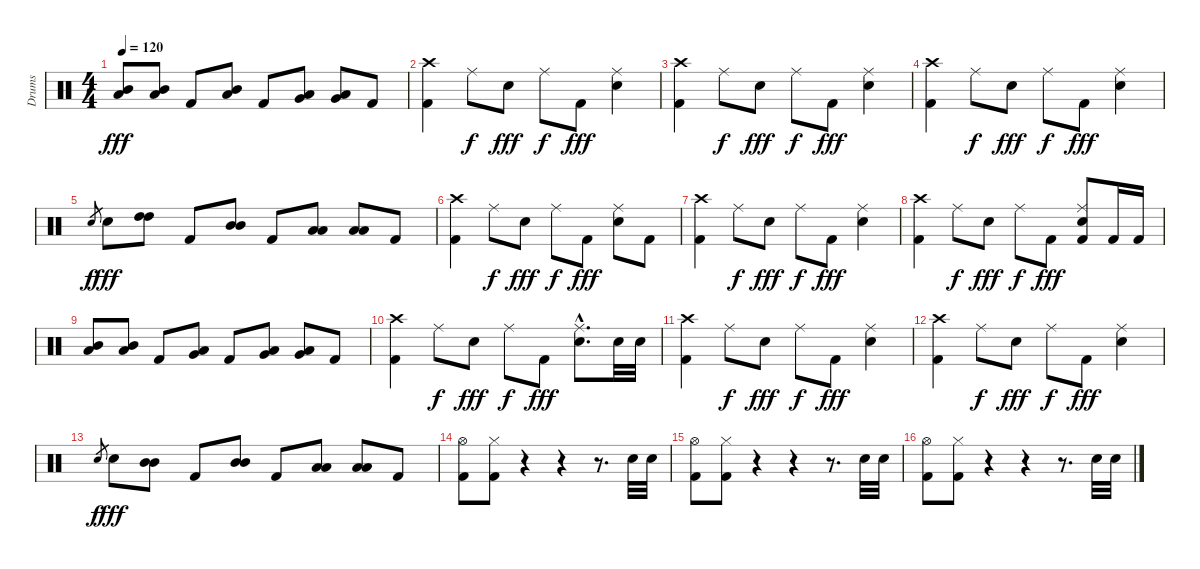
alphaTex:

\track ("Drums" "Drums") {instrument percussion}
\staff {score}
\articulation defaults
\ts (4 4)
\tempo 120
\clef neutral
\ks c
("Mid Tom (hit)" "Low Tom (hit)").8{dy fff} ("Mid Tom (hit)" "Low Tom (hit)").8 "Kick (hit) 2".8 ("Mid Tom (hit)" "Low Tom (hit)").8 "Kick (hit) 2".8 ("Low Tom (hit)" "Very Low Tom (hit)").8 ("Low Tom (hit)" "Very Low Tom (hit)").8 "Kick (hit) 2".8 |
("Crash high (hit)" "Kick (hit) 2").4 "Ride (middle)".8{dy f} "Snare (hit) 2".8{dy fff} "Ride (middle)".8{dy f} "Kick (hit) 2".8{dy fff} ("Ride (middle)" "Snare (hit) 2").4 |
("Crash high (hit)" "Kick (hit) 2").4 "Ride (middle)".8{dy f} "Snare (hit) 2".8{dy fff} "Ride (middle)".8{dy f} "Kick (hit) 2".8{dy fff} ("Ride (middle)" "Snare (hit) 2").4 |
("Crash high (hit)" "Kick (hit) 2").4 "Ride (middle)".8{dy f} "Snare (hit) 2".8{dy fff} "Ride (middle)".8{dy f} "Kick (hit) 2".8{dy fff} ("Ride (middle)" "Snare (hit) 2").4 |
"Snare (hit) 2".8{gr dy f} "Snare (hit) 2".8{dy fff} ("High Tom (hit)" "High Tom (hit)").8 "Kick (hit) 2".8 ("Mid Tom (hit)" "Mid Tom (hit)").8 "Kick (hit) 2".8 ("Low Tom (hit)" "Low Tom (hit)").8 ("Low Tom (hit)" "Low Tom (hit)").8 "Kick (hit) 2".8 |
("Crash high (hit)" "Kick (hit) 2").4 "Ride (middle)".8{dy f} "Snare (hit) 2".8{dy fff} "Ride (middle)".8{dy f} "Kick (hit) 2".8{dy fff} ("Ride (middle)" "Snare (hit) 2").8 "Kick (hit) 2".8 |
("Crash high (hit)" "Kick (hit) 2").4 "Ride (middle)".8{dy f} "Snare (hit) 2".8{dy fff} "Ride (middle)".8{dy f} "Kick (hit) 2".8{dy fff} ("Ride (middle)" "Snare (hit) 2").4 |
("Crash high (hit)" "Kick (hit) 2").4 "Ride (middle)".8{dy f} "Snare (hit) 2".8{dy fff} "Ride (middle)".8{dy f} "Kick (hit) 2".8{dy fff} ("Ride (middle)" "Snare (hit) 2" "Kick (hit) 2").8 "Kick (hit) 2".16 "Kick (hit) 2".16 |
("Mid Tom (hit)" "Low Tom (hit)").8 ("Mid Tom (hit)" "Low Tom (hit)").8 "Kick (hit) 2".8 ("Low Tom (hit)" "Very Low Tom (hit)").8 "Kick (hit) 2".8 ("Low Tom (hit)" "Very Low Tom (hit)").8 ("Low Tom (hit)" "Very Low Tom (hit)").8 "Kick (hit) 2".8 |
("Crash high (hit)" "Kick (hit) 2").4 "Ride (middle)".8{dy f} "Snare (hit) 2".8{dy fff} "Ride (middle)".8{dy f} "Kick (hit) 2".8{dy fff} ("Ride (middle)"{hac} "Snare (hit) 2"{hac}).8{d} "Snare (hit) 2".32 "Snare (hit) 2".32 |
("Crash high (hit)" "Kick (hit) 2").4 "Ride (middle)".8{dy f} "Snare (hit) 2".8{dy fff} "Ride (middle)".8{dy f} "Kick (hit) 2".8{dy fff} ("Ride (middle)" "Snare (hit) 2").4 |
("Crash high (hit)" "Kick (hit) 2").4 "Ride (middle)".8{dy f} "Snare (hit) 2".8{dy fff} "Ride (middle)".8{dy f} "Kick (hit) 2".8{dy fff} ("Ride (middle)" "Snare (hit) 2").4 |
"Snare (hit) 2".8{gr dy f} "Snare (hit) 2".8{dy fff} ("Mid Tom (hit)" "Mid Tom (hit)").8 "Kick (hit) 2".8 ("Mid Tom (hit)" "Mid Tom (hit)").8 "Kick (hit) 2".8 ("Low Tom (hit)" "Low Tom (hit)").8 ("Low Tom (hit)" "Low Tom (hit)").8 "Kick (hit) 2".8 |
("Hi-Hat (open)" "Kick (hit) 2").8 ("Hi-Hat (closed)" "Kick (hit) 2").8 r.4 r.4 r.8{d} "Snare (hit) 2".32 "Snare (hit) 2".32 |
("Hi-Hat (open)" "Kick (hit) 2").8 ("Hi-Hat (closed)" "Kick (hit) 2").8 r.4 r.4 r.8{d} "Snare (hit) 2".32 "Snare (hit) 2".32 |
("Hi-Hat (open)" "Kick (hit) 2").8 ("Hi-Hat (closed)" "Kick (hit) 2").8 r.4 r.4 r.8{d} "Snare (hit) 2".32 "Snare (hit) 2".32
